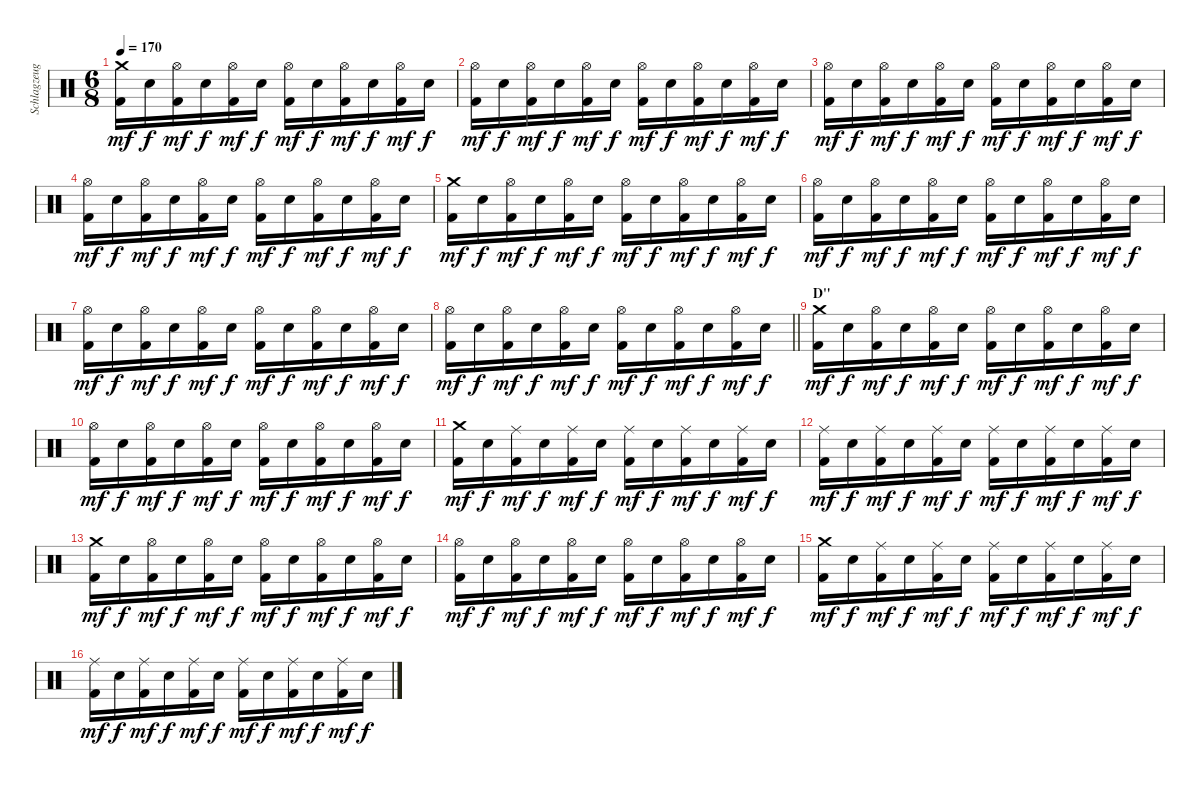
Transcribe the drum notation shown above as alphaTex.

\track ("Schlagzeug" "Schlagzeug") {instrument percussion}
\staff {score}
\articulation defaults
\ts (6 8)
\tempo 170
\clef neutral
\ks c
("Crash medium (hit)" "Kick (hit) 2").16{dy mf} "Electric Snare (hit)".16{dy f} ("Hi-Hat (open)" "Kick (hit) 2").16{dy mf} "Electric Snare (hit)".16{dy f} ("Hi-Hat (open)" "Kick (hit) 2").16{dy mf} "Electric Snare (hit)".16{dy f} ("Hi-Hat (open)" "Kick (hit) 2").16{dy mf} "Electric Snare (hit)".16{dy f} ("Hi-Hat (open)" "Kick (hit) 2").16{dy mf} "Electric Snare (hit)".16{dy f} ("Hi-Hat (open)" "Kick (hit) 2").16{dy mf} "Electric Snare (hit)".16{dy f} |
("Hi-Hat (open)" "Kick (hit) 2").16{dy mf} "Electric Snare (hit)".16{dy f} ("Hi-Hat (open)" "Kick (hit) 2").16{dy mf} "Electric Snare (hit)".16{dy f} ("Hi-Hat (open)" "Kick (hit) 2").16{dy mf} "Electric Snare (hit)".16{dy f} ("Hi-Hat (open)" "Kick (hit) 2").16{dy mf} "Electric Snare (hit)".16{dy f} ("Hi-Hat (open)" "Kick (hit) 2").16{dy mf} "Electric Snare (hit)".16{dy f} ("Hi-Hat (open)" "Kick (hit) 2").16{dy mf} "Electric Snare (hit)".16{dy f} |
("Hi-Hat (open)" "Kick (hit) 2").16{dy mf} "Electric Snare (hit)".16{dy f} ("Hi-Hat (open)" "Kick (hit) 2").16{dy mf} "Electric Snare (hit)".16{dy f} ("Hi-Hat (open)" "Kick (hit) 2").16{dy mf} "Electric Snare (hit)".16{dy f} ("Hi-Hat (open)" "Kick (hit) 2").16{dy mf} "Electric Snare (hit)".16{dy f} ("Hi-Hat (open)" "Kick (hit) 2").16{dy mf} "Electric Snare (hit)".16{dy f} ("Hi-Hat (open)" "Kick (hit) 2").16{dy mf} "Electric Snare (hit)".16{dy f} |
("Hi-Hat (open)" "Kick (hit) 2").16{dy mf} "Electric Snare (hit)".16{dy f} ("Hi-Hat (open)" "Kick (hit) 2").16{dy mf} "Electric Snare (hit)".16{dy f} ("Hi-Hat (open)" "Kick (hit) 2").16{dy mf} "Electric Snare (hit)".16{dy f} ("Hi-Hat (open)" "Kick (hit) 2").16{dy mf} "Electric Snare (hit)".16{dy f} ("Hi-Hat (open)" "Kick (hit) 2").16{dy mf} "Electric Snare (hit)".16{dy f} ("Hi-Hat (open)" "Kick (hit) 2").16{dy mf} "Electric Snare (hit)".16{dy f} |
("Crash medium (hit)" "Kick (hit) 2").16{dy mf} "Electric Snare (hit)".16{dy f} ("Hi-Hat (open)" "Kick (hit) 2").16{dy mf} "Electric Snare (hit)".16{dy f} ("Hi-Hat (open)" "Kick (hit) 2").16{dy mf} "Electric Snare (hit)".16{dy f} ("Hi-Hat (open)" "Kick (hit) 2").16{dy mf} "Electric Snare (hit)".16{dy f} ("Hi-Hat (open)" "Kick (hit) 2").16{dy mf} "Electric Snare (hit)".16{dy f} ("Hi-Hat (open)" "Kick (hit) 2").16{dy mf} "Electric Snare (hit)".16{dy f} |
("Hi-Hat (open)" "Kick (hit) 2").16{dy mf} "Electric Snare (hit)".16{dy f} ("Hi-Hat (open)" "Kick (hit) 2").16{dy mf} "Electric Snare (hit)".16{dy f} ("Hi-Hat (open)" "Kick (hit) 2").16{dy mf} "Electric Snare (hit)".16{dy f} ("Hi-Hat (open)" "Kick (hit) 2").16{dy mf} "Electric Snare (hit)".16{dy f} ("Hi-Hat (open)" "Kick (hit) 2").16{dy mf} "Electric Snare (hit)".16{dy f} ("Hi-Hat (open)" "Kick (hit) 2").16{dy mf} "Electric Snare (hit)".16{dy f} |
("Hi-Hat (open)" "Kick (hit) 2").16{dy mf} "Electric Snare (hit)".16{dy f} ("Hi-Hat (open)" "Kick (hit) 2").16{dy mf} "Electric Snare (hit)".16{dy f} ("Hi-Hat (open)" "Kick (hit) 2").16{dy mf} "Electric Snare (hit)".16{dy f} ("Hi-Hat (open)" "Kick (hit) 2").16{dy mf} "Electric Snare (hit)".16{dy f} ("Hi-Hat (open)" "Kick (hit) 2").16{dy mf} "Electric Snare (hit)".16{dy f} ("Hi-Hat (open)" "Kick (hit) 2").16{dy mf} "Electric Snare (hit)".16{dy f} |
\barLineRight lightlight
("Hi-Hat (open)" "Kick (hit) 2").16{dy mf} "Electric Snare (hit)".16{dy f} ("Hi-Hat (open)" "Kick (hit) 2").16{dy mf} "Electric Snare (hit)".16{dy f} ("Hi-Hat (open)" "Kick (hit) 2").16{dy mf} "Electric Snare (hit)".16{dy f} ("Hi-Hat (open)" "Kick (hit) 2").16{dy mf} "Electric Snare (hit)".16{dy f} ("Hi-Hat (open)" "Kick (hit) 2").16{dy mf} "Electric Snare (hit)".16{dy f} ("Hi-Hat (open)" "Kick (hit) 2").16{dy mf} "Electric Snare (hit)".16{dy f} |
\section ("" "D''")
("Crash medium (hit)" "Kick (hit) 2").16{dy mf} "Electric Snare (hit)".16{dy f} ("Hi-Hat (open)" "Kick (hit) 2").16{dy mf} "Electric Snare (hit)".16{dy f} ("Hi-Hat (open)" "Kick (hit) 2").16{dy mf} "Electric Snare (hit)".16{dy f} ("Hi-Hat (open)" "Kick (hit) 2").16{dy mf} "Electric Snare (hit)".16{dy f} ("Hi-Hat (open)" "Kick (hit) 2").16{dy mf} "Electric Snare (hit)".16{dy f} ("Hi-Hat (open)" "Kick (hit) 2").16{dy mf} "Electric Snare (hit)".16{dy f} |
("Hi-Hat (open)" "Kick (hit) 2").16{dy mf} "Electric Snare (hit)".16{dy f} ("Hi-Hat (open)" "Kick (hit) 2").16{dy mf} "Electric Snare (hit)".16{dy f} ("Hi-Hat (open)" "Kick (hit) 2").16{dy mf} "Electric Snare (hit)".16{dy f} ("Hi-Hat (open)" "Kick (hit) 2").16{dy mf} "Electric Snare (hit)".16{dy f} ("Hi-Hat (open)" "Kick (hit) 2").16{dy mf} "Electric Snare (hit)".16{dy f} ("Hi-Hat (open)" "Kick (hit) 2").16{dy mf} "Electric Snare (hit)".16{dy f} |
("Crash medium (hit)" "Kick (hit) 2").16{dy mf} "Electric Snare (hit)".16{dy f} ("Ride (middle)" "Kick (hit) 2").16{dy mf} "Electric Snare (hit)".16{dy f} ("Ride (middle)" "Kick (hit) 2").16{dy mf} "Electric Snare (hit)".16{dy f} ("Ride (middle)" "Kick (hit) 2").16{dy mf} "Electric Snare (hit)".16{dy f} ("Ride (middle)" "Kick (hit) 2").16{dy mf} "Electric Snare (hit)".16{dy f} ("Ride (middle)" "Kick (hit) 2").16{dy mf} "Electric Snare (hit)".16{dy f} |
("Ride (middle)" "Kick (hit) 2").16{dy mf} "Electric Snare (hit)".16{dy f} ("Ride (middle)" "Kick (hit) 2").16{dy mf} "Electric Snare (hit)".16{dy f} ("Ride (middle)" "Kick (hit) 2").16{dy mf} "Electric Snare (hit)".16{dy f} ("Ride (middle)" "Kick (hit) 2").16{dy mf} "Electric Snare (hit)".16{dy f} ("Ride (middle)" "Kick (hit) 2").16{dy mf} "Electric Snare (hit)".16{dy f} ("Ride (middle)" "Kick (hit) 2").16{dy mf} "Electric Snare (hit)".16{dy f} |
("Crash medium (hit)" "Kick (hit) 2").16{dy mf} "Electric Snare (hit)".16{dy f} ("Hi-Hat (open)" "Kick (hit) 2").16{dy mf} "Electric Snare (hit)".16{dy f} ("Hi-Hat (open)" "Kick (hit) 2").16{dy mf} "Electric Snare (hit)".16{dy f} ("Hi-Hat (open)" "Kick (hit) 2").16{dy mf} "Electric Snare (hit)".16{dy f} ("Hi-Hat (open)" "Kick (hit) 2").16{dy mf} "Electric Snare (hit)".16{dy f} ("Hi-Hat (open)" "Kick (hit) 2").16{dy mf} "Electric Snare (hit)".16{dy f} |
("Hi-Hat (open)" "Kick (hit) 2").16{dy mf} "Electric Snare (hit)".16{dy f} ("Hi-Hat (open)" "Kick (hit) 2").16{dy mf} "Electric Snare (hit)".16{dy f} ("Hi-Hat (open)" "Kick (hit) 2").16{dy mf} "Electric Snare (hit)".16{dy f} ("Hi-Hat (open)" "Kick (hit) 2").16{dy mf} "Electric Snare (hit)".16{dy f} ("Hi-Hat (open)" "Kick (hit) 2").16{dy mf} "Electric Snare (hit)".16{dy f} ("Hi-Hat (open)" "Kick (hit) 2").16{dy mf} "Electric Snare (hit)".16{dy f} |
("Crash medium (hit)" "Kick (hit) 2").16{dy mf} "Electric Snare (hit)".16{dy f} ("Ride (middle)" "Kick (hit) 2").16{dy mf} "Electric Snare (hit)".16{dy f} ("Ride (middle)" "Kick (hit) 2").16{dy mf} "Electric Snare (hit)".16{dy f} ("Ride (middle)" "Kick (hit) 2").16{dy mf} "Electric Snare (hit)".16{dy f} ("Ride (middle)" "Kick (hit) 2").16{dy mf} "Electric Snare (hit)".16{dy f} ("Ride (middle)" "Kick (hit) 2").16{dy mf} "Electric Snare (hit)".16{dy f} |
("Ride (middle)" "Kick (hit) 2").16{dy mf} "Electric Snare (hit)".16{dy f} ("Ride (middle)" "Kick (hit) 2").16{dy mf} "Electric Snare (hit)".16{dy f} ("Ride (middle)" "Kick (hit) 2").16{dy mf} "Electric Snare (hit)".16{dy f} ("Ride (middle)" "Kick (hit) 2").16{dy mf} "Electric Snare (hit)".16{dy f} ("Ride (middle)" "Kick (hit) 2").16{dy mf} "Electric Snare (hit)".16{dy f} ("Ride (middle)" "Kick (hit) 2").16{dy mf} "Electric Snare (hit)".16{dy f}
